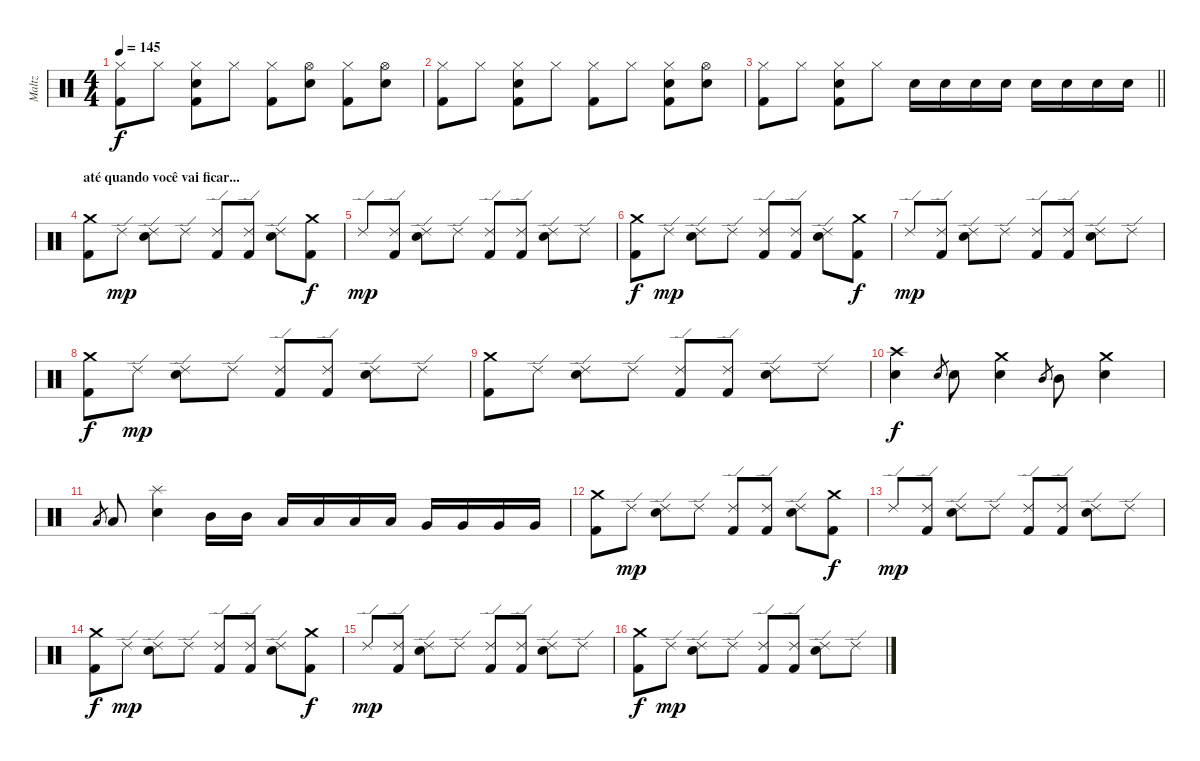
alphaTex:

\track ("Maltz" "Maltz") {instrument percussion}
\staff {score}
\articulation defaults
\ts (4 4)
\tempo 145
\clef neutral
\ks c
("Hi-Hat (closed)" "Kick (hit) 2").8{dy f} "Hi-Hat (closed)".8 ("Hi-Hat (closed)" "Electric Snare (hit)" "Kick (hit) 2").8 "Hi-Hat (closed)".8 ("Hi-Hat (closed)" "Kick (hit) 2").8 ("Hi-Hat (open)" "Electric Snare (hit)").8 ("Hi-Hat (closed)" "Kick (hit) 2").8 ("Hi-Hat (open)" "Electric Snare (hit)").8 |
("Hi-Hat (closed)" "Kick (hit) 2").8 "Hi-Hat (closed)".8 ("Hi-Hat (closed)" "Electric Snare (hit)" "Kick (hit) 2").8 "Hi-Hat (closed)".8 ("Hi-Hat (closed)" "Kick (hit) 2").8 "Hi-Hat (closed)".8 ("Hi-Hat (closed)" "Electric Snare (hit)" "Kick (hit) 2").8 ("Hi-Hat (open)" "Electric Snare (hit)").8 |
\barLineRight lightlight
("Hi-Hat (closed)" "Kick (hit) 2").8 "Hi-Hat (closed)".8 ("Hi-Hat (closed)" "Electric Snare (hit)" "Kick (hit) 2").8 "Hi-Hat (closed)".8 "Electric Snare (hit)".16 "Electric Snare (hit)".16 "Electric Snare (hit)".16 "Electric Snare (hit)".16 "Electric Snare (hit)".16 "Electric Snare (hit)".16 "Electric Snare (hit)".16 "Electric Snare (hit)".16 |
\section ("" "até quando você vai ficar...")
("Crash medium (hit)" "Kick (hit) 2").8 "Ride (edge) 2".8{dy mp} ("Ride (edge) 2" "Electric Snare (hit)").8 "Ride (edge) 2".8 ("Ride (edge) 2" "Kick (hit) 2").8 ("Ride (edge) 2" "Kick (hit) 2").8 ("Ride (edge) 2" "Electric Snare (hit)").8 ("Crash medium (hit)" "Kick (hit) 2").8{dy f} |
"Ride (edge) 2".8{dy mp} ("Ride (edge) 2" "Kick (hit) 2").8 ("Ride (edge) 2" "Electric Snare (hit)").8 "Ride (edge) 2".8 ("Ride (edge) 2" "Kick (hit) 2").8 ("Ride (edge) 2" "Kick (hit) 2").8 ("Ride (edge) 2" "Electric Snare (hit)").8 "Ride (edge) 2".8 |
("Crash medium (hit)" "Kick (hit) 2").8{dy f} "Ride (edge) 2".8{dy mp} ("Ride (edge) 2" "Electric Snare (hit)").8 "Ride (edge) 2".8 ("Ride (edge) 2" "Kick (hit) 2").8 ("Ride (edge) 2" "Kick (hit) 2").8 ("Ride (edge) 2" "Electric Snare (hit)").8 ("Crash medium (hit)" "Kick (hit) 2").8{dy f} |
"Ride (edge) 2".8{dy mp} ("Ride (edge) 2" "Kick (hit) 2").8 ("Ride (edge) 2" "Electric Snare (hit)").8 "Ride (edge) 2".8 ("Ride (edge) 2" "Kick (hit) 2").8 ("Ride (edge) 2" "Kick (hit) 2").8 ("Ride (edge) 2" "Electric Snare (hit)").8 "Ride (edge) 2".8 |
("Crash medium (hit)" "Kick (hit) 2").8{dy f} "Ride (edge) 2".8{dy mp} ("Ride (edge) 2" "Electric Snare (hit)").8 "Ride (edge) 2".8 ("Ride (edge) 2" "Kick (hit) 2").8 ("Ride (edge) 2" "Kick (hit) 2").8 ("Ride (edge) 2" "Electric Snare (hit)").8 "Ride (edge) 2".8 |
("Crash medium (hit)" "Kick (hit) 2").8 "Ride (edge) 2".8 ("Ride (edge) 2" "Electric Snare (hit)").8 "Ride (edge) 2".8 ("Ride (edge) 2" "Kick (hit) 2").8 ("Ride (edge) 2" "Kick (hit) 2").8 ("Ride (edge) 2" "Electric Snare (hit)").8 "Ride (edge) 2".8 |
("Crash high (hit)" "Electric Snare (hit)").4{dy f} "Electric Snare (hit)".8{gr} "Electric Snare (hit)".8 ("Crash medium (hit)" "Electric Snare (hit)").4 "Mid Tom (hit)".8{gr} "Mid Tom (hit)".8 ("Crash medium (hit)" "Electric Snare (hit)").4 |
"Low Tom (hit)".8{gr} "Low Tom (hit)".8 ("Splash (hit)" "Electric Snare (hit)").4 "Mid Tom (hit)".16 "Mid Tom (hit)".16 "Low Tom (hit)".16 "Low Tom (hit)".16 "Low Tom (hit)".16 "Low Tom (hit)".16 "Very Low Tom (hit)".16 "Very Low Tom (hit)".16 "Very Low Tom (hit)".16 "Very Low Tom (hit)".16 |
("Crash medium (hit)" "Kick (hit) 2").8 "Ride (edge) 2".8{dy mp} ("Ride (edge) 2" "Electric Snare (hit)").8 "Ride (edge) 2".8 ("Ride (edge) 2" "Kick (hit) 2").8 ("Ride (edge) 2" "Kick (hit) 2").8 ("Ride (edge) 2" "Electric Snare (hit)").8 ("Crash medium (hit)" "Kick (hit) 2").8{dy f} |
"Ride (edge) 2".8{dy mp} ("Ride (edge) 2" "Kick (hit) 2").8 ("Ride (edge) 2" "Electric Snare (hit)").8 "Ride (edge) 2".8 ("Ride (edge) 2" "Kick (hit) 2").8 ("Ride (edge) 2" "Kick (hit) 2").8 ("Ride (edge) 2" "Electric Snare (hit)").8 "Ride (edge) 2".8 |
("Crash medium (hit)" "Kick (hit) 2").8{dy f} "Ride (edge) 2".8{dy mp} ("Ride (edge) 2" "Electric Snare (hit)").8 "Ride (edge) 2".8 ("Ride (edge) 2" "Kick (hit) 2").8 ("Ride (edge) 2" "Kick (hit) 2").8 ("Ride (edge) 2" "Electric Snare (hit)").8 ("Crash medium (hit)" "Kick (hit) 2").8{dy f} |
"Ride (edge) 2".8{dy mp} ("Ride (edge) 2" "Kick (hit) 2").8 ("Ride (edge) 2" "Electric Snare (hit)").8 "Ride (edge) 2".8 ("Ride (edge) 2" "Kick (hit) 2").8 ("Ride (edge) 2" "Kick (hit) 2").8 ("Ride (edge) 2" "Electric Snare (hit)").8 "Ride (edge) 2".8 |
("Crash medium (hit)" "Kick (hit) 2").8{dy f} "Ride (edge) 2".8{dy mp} ("Ride (edge) 2" "Electric Snare (hit)").8 "Ride (edge) 2".8 ("Ride (edge) 2" "Kick (hit) 2").8 ("Ride (edge) 2" "Kick (hit) 2").8 ("Ride (edge) 2" "Electric Snare (hit)").8 "Ride (edge) 2".8
